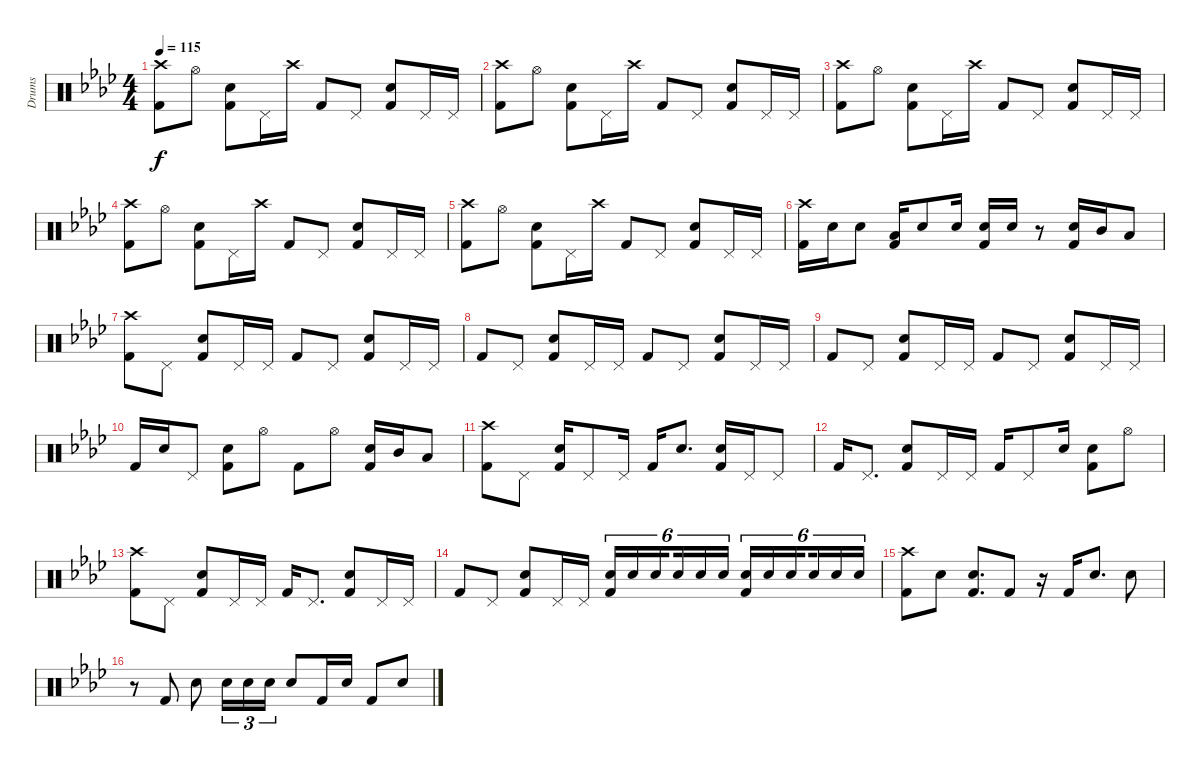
\track ("Drums" "Drums") {instrument percussion}
\staff {score}
\articulation defaults
\ts (4 4)
\tempo 115
\clef neutral
\ks ab
("Crash high (hit)" "Kick (hit) 2").8{dy f} "Hi-Hat (open)".8 ("Electric Snare (hit)" "Kick (hit) 2").8 "Pedal Hi-Hat (hit)".16 "Crash high (hit)".16 "Kick (hit) 2".8 "Pedal Hi-Hat (hit)".8 ("Electric Snare (hit)" "Kick (hit) 2").8 "Pedal Hi-Hat (hit)".16 "Pedal Hi-Hat (hit)".16 |
("Crash high (hit)" "Kick (hit) 2").8 "Hi-Hat (open)".8 ("Electric Snare (hit)" "Kick (hit) 2").8 "Pedal Hi-Hat (hit)".16 "Crash high (hit)".16 "Kick (hit) 2".8 "Pedal Hi-Hat (hit)".8 ("Electric Snare (hit)" "Kick (hit) 2").8 "Pedal Hi-Hat (hit)".16 "Pedal Hi-Hat (hit)".16 |
("Crash high (hit)" "Kick (hit) 2").8 "Hi-Hat (open)".8 ("Electric Snare (hit)" "Kick (hit) 2").8 "Pedal Hi-Hat (hit)".16 "Crash high (hit)".16 "Kick (hit) 2".8 "Pedal Hi-Hat (hit)".8 ("Electric Snare (hit)" "Kick (hit) 2").8 "Pedal Hi-Hat (hit)".16 "Pedal Hi-Hat (hit)".16 |
("Crash high (hit)" "Kick (hit) 2").8 "Hi-Hat (open)".8 ("Electric Snare (hit)" "Kick (hit) 2").8 "Pedal Hi-Hat (hit)".16 "Crash high (hit)".16 "Kick (hit) 2".8 "Pedal Hi-Hat (hit)".8 ("Electric Snare (hit)" "Kick (hit) 2").8 "Pedal Hi-Hat (hit)".16 "Pedal Hi-Hat (hit)".16 |
("Crash high (hit)" "Kick (hit) 2").8 "Hi-Hat (open)".8 ("Electric Snare (hit)" "Kick (hit) 2").8 "Pedal Hi-Hat (hit)".16 "Crash high (hit)".16 "Kick (hit) 2".8 "Pedal Hi-Hat (hit)".8 ("Electric Snare (hit)" "Kick (hit) 2").8 "Pedal Hi-Hat (hit)".16 "Pedal Hi-Hat (hit)".16 |
("Crash high (hit)" "Kick (hit) 2").16 "Electric Snare (hit)".16 "Electric Snare (hit)".8 ("Low Tom (hit)" "Kick (hit) 2").16 "Electric Snare (hit)".8 "Electric Snare (hit)".16 ("Electric Snare (hit)" "Kick (hit) 2").16 "Electric Snare (hit)".16 r.8 ("Electric Snare (hit)" "Kick (hit) 2").16 "Mid Tom (hit)".16 "Low Tom (hit)".8 |
("Crash high (hit)" "Kick (hit) 2").8 "Pedal Hi-Hat (hit)".8 ("Electric Snare (hit)" "Kick (hit) 2").8 "Pedal Hi-Hat (hit)".16 "Pedal Hi-Hat (hit)".16 "Kick (hit) 2".8 "Pedal Hi-Hat (hit)".8 ("Electric Snare (hit)" "Kick (hit) 2").8 "Pedal Hi-Hat (hit)".16 "Pedal Hi-Hat (hit)".16 |
"Kick (hit) 2".8 "Pedal Hi-Hat (hit)".8 ("Electric Snare (hit)" "Kick (hit) 2").8 "Pedal Hi-Hat (hit)".16 "Pedal Hi-Hat (hit)".16 "Kick (hit) 2".8 "Pedal Hi-Hat (hit)".8 ("Electric Snare (hit)" "Kick (hit) 2").8 "Pedal Hi-Hat (hit)".16 "Pedal Hi-Hat (hit)".16 |
"Kick (hit) 2".8 "Pedal Hi-Hat (hit)".8 ("Electric Snare (hit)" "Kick (hit) 2").8 "Pedal Hi-Hat (hit)".16 "Pedal Hi-Hat (hit)".16 "Kick (hit) 2".8 "Pedal Hi-Hat (hit)".8 ("Electric Snare (hit)" "Kick (hit) 2").8 "Pedal Hi-Hat (hit)".16 "Pedal Hi-Hat (hit)".16 |
"Kick (hit) 2".16 "Electric Snare (hit)".16 "Pedal Hi-Hat (hit)".8 ("Electric Snare (hit)" "Kick (hit) 2").8 "Hi-Hat (open)".8 "Kick (hit) 2".8 "Hi-Hat (open)".8 ("Electric Snare (hit)" "Kick (hit) 2").16 "Mid Tom (hit)".16 "Low Tom (hit)".8 |
("Crash high (hit)" "Kick (hit) 2").8 "Pedal Hi-Hat (hit)".8 ("Electric Snare (hit)" "Kick (hit) 2").16 "Pedal Hi-Hat (hit)".8 "Pedal Hi-Hat (hit)".16 "Kick (hit) 2".16 "Electric Snare (hit)".8{d} ("Electric Snare (hit)" "Kick (hit) 2").16 "Pedal Hi-Hat (hit)".16 "Pedal Hi-Hat (hit)".8 |
"Kick (hit) 2".16 "Pedal Hi-Hat (hit)".8{d} ("Electric Snare (hit)" "Kick (hit) 2").8 "Pedal Hi-Hat (hit)".16 "Pedal Hi-Hat (hit)".16 "Kick (hit) 2".16 "Pedal Hi-Hat (hit)".8 "Electric Snare (hit)".16 ("Electric Snare (hit)" "Kick (hit) 2").8 "Hi-Hat (open)".8 |
("Crash high (hit)" "Kick (hit) 2").8 "Pedal Hi-Hat (hit)".8 ("Electric Snare (hit)" "Kick (hit) 2").8 "Pedal Hi-Hat (hit)".16 "Pedal Hi-Hat (hit)".16 "Kick (hit) 2".16 "Pedal Hi-Hat (hit)".8{d} ("Electric Snare (hit)" "Kick (hit) 2").8 "Pedal Hi-Hat (hit)".16 "Pedal Hi-Hat (hit)".16 |
"Kick (hit) 2".8 "Pedal Hi-Hat (hit)".8 ("Electric Snare (hit)" "Kick (hit) 2").8 "Pedal Hi-Hat (hit)".16 "Pedal Hi-Hat (hit)".16 ("Electric Snare (hit)" "Kick (hit) 2").16{tu (6 4)} "Electric Snare (hit)".16{tu (6 4)} "Electric Snare (hit)".16{tu (6 4) beam splitsecondary} "Electric Snare (hit)".16{tu (6 4)} "Electric Snare (hit)".16{tu (6 4)} "Electric Snare (hit)".16{tu (6 4)} ("Electric Snare (hit)" "Kick (hit) 2").16{tu (6 4)} "Electric Snare (hit)".16{tu (6 4)} "Electric Snare (hit)".16{tu (6 4) beam splitsecondary} "Electric Snare (hit)".16{tu (6 4)} "Electric Snare (hit)".16{tu (6 4)} "Electric Snare (hit)".16{tu (6 4)} |
("Crash high (hit)" "Kick (hit) 2").8 "Electric Snare (hit)".8 ("Electric Snare (hit)" "Kick (hit) 2").8{d} "Kick (hit) 2".8 r.16 "Kick (hit) 2".16 "Electric Snare (hit)".8{d} "Electric Snare (hit)".8 |
r.8 "Kick (hit) 2".8 "Electric Snare (hit)".8 "Electric Snare (hit)".16{tu (3 2)} "Electric Snare (hit)".16{tu (3 2)} "Electric Snare (hit)".16{tu (3 2)} "Electric Snare (hit)".8 "Kick (hit) 2".16 "Electric Snare (hit)".16 "Kick (hit) 2".8 "Electric Snare (hit)".8
